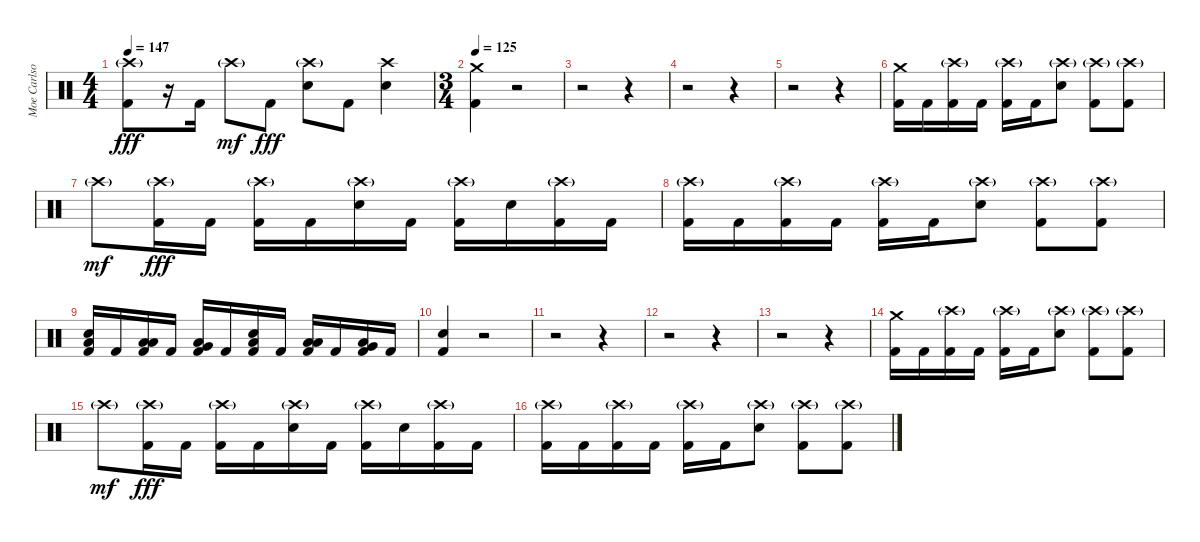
\track ("Moe Carlson" "Moe Carlso") {instrument percussion}
\staff {score}
\articulation defaults
\ts (4 4)
\tempo 147
\clef neutral
\ks c
("Crash high (hit)"{g} "Kick (hit) 2").8{dy fff} r.16 "Kick (hit) 2".16 "Crash high (hit)"{g}.8{dy mf} "Kick (hit) 2".8{dy fff} ("Crash high (hit)"{g} "Electric Snare (hit)").8 "Kick (hit) 2".8 ("Crash high (hit)" "Electric Snare (hit)").4 |
\ts (3 4)
\tempo 125
("Crash medium (hit)" "Kick (hit) 2").4 r.2 |
r.2 r.4 |
r.2 r.4 |
r.2 r.4 |
("Crash medium (hit)" "Kick (hit) 2").16 "Kick (hit) 2".16 ("Crash high (hit)"{g} "Kick (hit) 2").16 "Kick (hit) 2".16 ("Crash high (hit)"{g} "Kick (hit) 2").16 "Kick (hit) 2".16 ("Crash high (hit)"{g} "Electric Snare (hit)").8 ("Crash high (hit)"{g} "Kick (hit) 2").8 ("Crash high (hit)"{g} "Kick (hit) 2").8 |
"Crash high (hit)"{g}.8{dy mf} ("Crash high (hit)"{g} "Kick (hit) 2").16{dy fff} "Kick (hit) 2".16 ("Crash high (hit)"{g} "Kick (hit) 2").16 "Kick (hit) 2".16 ("Crash high (hit)"{g} "Electric Snare (hit)").16 "Kick (hit) 2".16 ("Crash high (hit)"{g} "Kick (hit) 2").16 "Electric Snare (hit)".16 ("Crash high (hit)"{g} "Kick (hit) 2").16 "Kick (hit) 2".16 |
("Crash high (hit)"{g} "Kick (hit) 2").16 "Kick (hit) 2".16 ("Crash high (hit)"{g} "Kick (hit) 2").16 "Kick (hit) 2".16 ("Crash high (hit)"{g} "Kick (hit) 2").16 "Kick (hit) 2".16 ("Crash high (hit)"{g} "Electric Snare (hit)").8 ("Crash high (hit)"{g} "Kick (hit) 2").8 ("Crash high (hit)"{g} "Kick (hit) 2").8 |
("Electric Snare (hit)" "Low Floor Tom (hit)" "Kick (hit) 2").16 "Kick (hit) 2".16 ("Low Tom (hit)" "Low Floor Tom (hit)" "Kick (hit) 2").16 "Kick (hit) 2".16 ("Very Low Tom (hit)" "Low Floor Tom (hit)" "Kick (hit) 2").16 "Kick (hit) 2".16 ("Electric Snare (hit)" "Low Floor Tom (hit)" "Kick (hit) 2").16 "Kick (hit) 2".16 ("Low Tom (hit)" "Low Floor Tom (hit)" "Kick (hit) 2").16 "Kick (hit) 2".16 ("Very Low Tom (hit)" "Low Floor Tom (hit)" "Kick (hit) 2").16 "Kick (hit) 2".16 |
("Electric Snare (hit)" "Kick (hit) 2").4 r.2 |
r.2 r.4 |
r.2 r.4 |
r.2 r.4 |
("Crash medium (hit)" "Kick (hit) 2").16 "Kick (hit) 2".16 ("Crash high (hit)"{g} "Kick (hit) 2").16 "Kick (hit) 2".16 ("Crash high (hit)"{g} "Kick (hit) 2").16 "Kick (hit) 2".16 ("Crash high (hit)"{g} "Electric Snare (hit)").8 ("Crash high (hit)"{g} "Kick (hit) 2").8 ("Crash high (hit)"{g} "Kick (hit) 2").8 |
"Crash high (hit)"{g}.8{dy mf} ("Crash high (hit)"{g} "Kick (hit) 2").16{dy fff} "Kick (hit) 2".16 ("Crash high (hit)"{g} "Kick (hit) 2").16 "Kick (hit) 2".16 ("Crash high (hit)"{g} "Electric Snare (hit)").16 "Kick (hit) 2".16 ("Crash high (hit)"{g} "Kick (hit) 2").16 "Electric Snare (hit)".16 ("Crash high (hit)"{g} "Kick (hit) 2").16 "Kick (hit) 2".16 |
("Crash high (hit)"{g} "Kick (hit) 2").16 "Kick (hit) 2".16 ("Crash high (hit)"{g} "Kick (hit) 2").16 "Kick (hit) 2".16 ("Crash high (hit)"{g} "Kick (hit) 2").16 "Kick (hit) 2".16 ("Crash high (hit)"{g} "Electric Snare (hit)").8 ("Crash high (hit)"{g} "Kick (hit) 2").8 ("Crash high (hit)"{g} "Kick (hit) 2").8
